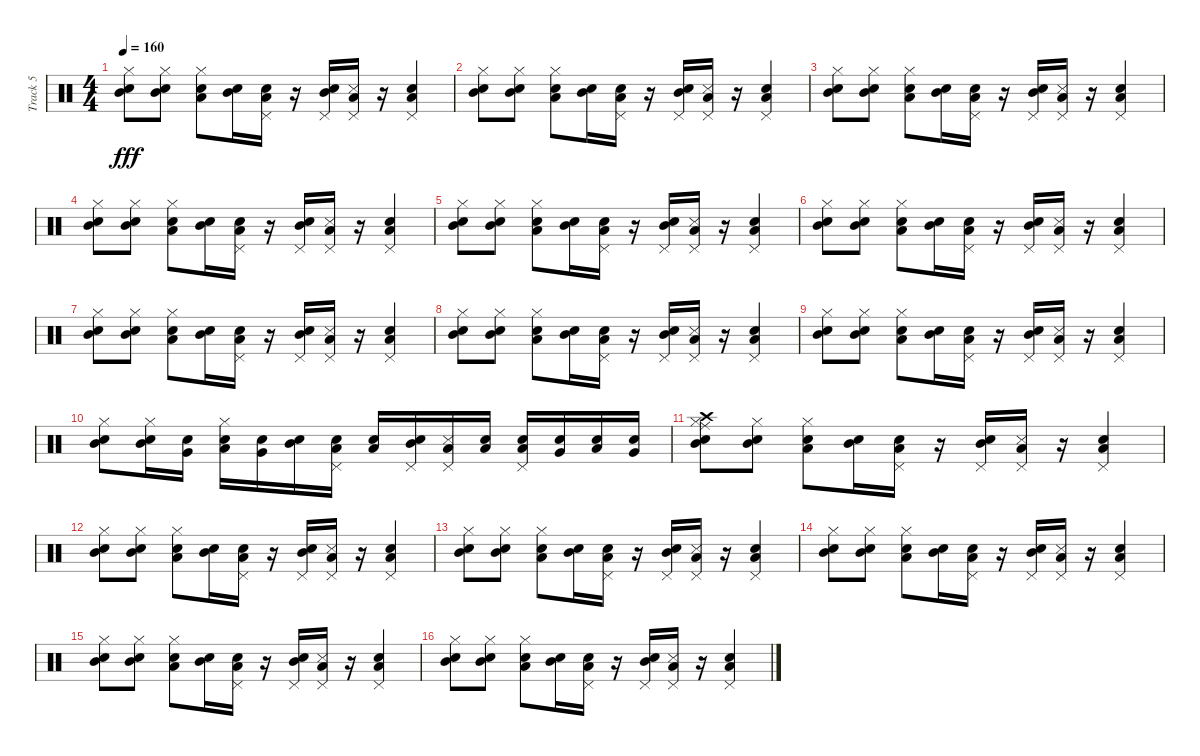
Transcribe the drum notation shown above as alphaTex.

\track ("Track 5" "Track 5") {instrument percussion}
\staff {score}
\articulation defaults
\ts (4 4)
\tempo 160
\clef neutral
\ks c
("Hi-Hat (closed)" "Electric Snare (hit)" "Mid Tom (hit)").8{dy fff} ("Hi-Hat (closed)" "Electric Snare (hit)" "Mid Tom (hit)").8 ("Hi-Hat (closed)" "Snare (hit) 2" "Low Tom (hit)").8 ("Electric Snare (hit)" "Mid Tom (hit)").16 ("Low Tom (hit)" "Electric Snare (hit)" "Pedal Hi-Hat (hit)").16 r.16 ("Electric Snare (hit)" "Mid Tom (hit)" "Pedal Hi-Hat (hit)").16 ("Pedal Hi-Hat (hit)" "Low Tom (hit)" "Snare (side stick) 3").16 r.16 ("Pedal Hi-Hat (hit)" "Low Tom (hit)" "Snare (hit) 2").4 |
("Hi-Hat (closed)" "Electric Snare (hit)" "Mid Tom (hit)").8 ("Hi-Hat (closed)" "Electric Snare (hit)" "Mid Tom (hit)").8 ("Hi-Hat (closed)" "Snare (hit) 2" "Low Tom (hit)").8 ("Electric Snare (hit)" "Mid Tom (hit)").16 ("Low Tom (hit)" "Electric Snare (hit)" "Pedal Hi-Hat (hit)").16 r.16 ("Electric Snare (hit)" "Mid Tom (hit)" "Pedal Hi-Hat (hit)").16 ("Pedal Hi-Hat (hit)" "Low Tom (hit)" "Snare (side stick) 3").16 r.16 ("Pedal Hi-Hat (hit)" "Low Tom (hit)" "Snare (hit) 2").4 |
("Hi-Hat (closed)" "Electric Snare (hit)" "Mid Tom (hit)").8 ("Hi-Hat (closed)" "Electric Snare (hit)" "Mid Tom (hit)").8 ("Hi-Hat (closed)" "Snare (hit) 2" "Low Tom (hit)").8 ("Electric Snare (hit)" "Mid Tom (hit)").16 ("Low Tom (hit)" "Electric Snare (hit)" "Pedal Hi-Hat (hit)").16 r.16 ("Electric Snare (hit)" "Mid Tom (hit)" "Pedal Hi-Hat (hit)").16 ("Pedal Hi-Hat (hit)" "Low Tom (hit)" "Snare (side stick) 3").16 r.16 ("Pedal Hi-Hat (hit)" "Low Tom (hit)" "Snare (hit) 2").4 |
("Hi-Hat (closed)" "Electric Snare (hit)" "Mid Tom (hit)").8 ("Hi-Hat (closed)" "Electric Snare (hit)" "Mid Tom (hit)").8 ("Hi-Hat (closed)" "Snare (hit) 2" "Low Tom (hit)").8 ("Electric Snare (hit)" "Mid Tom (hit)").16 ("Low Tom (hit)" "Electric Snare (hit)" "Pedal Hi-Hat (hit)").16 r.16 ("Electric Snare (hit)" "Mid Tom (hit)" "Pedal Hi-Hat (hit)").16 ("Pedal Hi-Hat (hit)" "Low Tom (hit)" "Snare (side stick) 3").16 r.16 ("Pedal Hi-Hat (hit)" "Low Tom (hit)" "Snare (hit) 2").4 |
("Hi-Hat (closed)" "Electric Snare (hit)" "Mid Tom (hit)").8 ("Hi-Hat (closed)" "Electric Snare (hit)" "Mid Tom (hit)").8 ("Hi-Hat (closed)" "Snare (hit) 2" "Low Tom (hit)").8 ("Electric Snare (hit)" "Mid Tom (hit)").16 ("Low Tom (hit)" "Electric Snare (hit)" "Pedal Hi-Hat (hit)").16 r.16 ("Electric Snare (hit)" "Mid Tom (hit)" "Pedal Hi-Hat (hit)").16 ("Pedal Hi-Hat (hit)" "Low Tom (hit)" "Snare (side stick) 3").16 r.16 ("Pedal Hi-Hat (hit)" "Low Tom (hit)" "Snare (hit) 2").4 |
("Hi-Hat (closed)" "Electric Snare (hit)" "Mid Tom (hit)").8 ("Hi-Hat (closed)" "Electric Snare (hit)" "Mid Tom (hit)").8 ("Hi-Hat (closed)" "Snare (hit) 2" "Low Tom (hit)").8 ("Electric Snare (hit)" "Mid Tom (hit)").16 ("Low Tom (hit)" "Electric Snare (hit)" "Pedal Hi-Hat (hit)").16 r.16 ("Electric Snare (hit)" "Mid Tom (hit)" "Pedal Hi-Hat (hit)").16 ("Pedal Hi-Hat (hit)" "Low Tom (hit)" "Snare (side stick) 3").16 r.16 ("Pedal Hi-Hat (hit)" "Low Tom (hit)" "Snare (hit) 2").4 |
("Hi-Hat (closed)" "Electric Snare (hit)" "Mid Tom (hit)").8 ("Hi-Hat (closed)" "Electric Snare (hit)" "Mid Tom (hit)").8 ("Hi-Hat (closed)" "Snare (hit) 2" "Low Tom (hit)").8 ("Electric Snare (hit)" "Mid Tom (hit)").16 ("Low Tom (hit)" "Electric Snare (hit)" "Pedal Hi-Hat (hit)").16 r.16 ("Electric Snare (hit)" "Mid Tom (hit)" "Pedal Hi-Hat (hit)").16 ("Pedal Hi-Hat (hit)" "Low Tom (hit)" "Snare (side stick) 3").16 r.16 ("Pedal Hi-Hat (hit)" "Low Tom (hit)" "Snare (hit) 2").4 |
("Hi-Hat (closed)" "Electric Snare (hit)" "Mid Tom (hit)").8 ("Hi-Hat (closed)" "Electric Snare (hit)" "Mid Tom (hit)").8 ("Hi-Hat (closed)" "Snare (hit) 2" "Low Tom (hit)").8 ("Electric Snare (hit)" "Mid Tom (hit)").16 ("Low Tom (hit)" "Electric Snare (hit)" "Pedal Hi-Hat (hit)").16 r.16 ("Electric Snare (hit)" "Mid Tom (hit)" "Pedal Hi-Hat (hit)").16 ("Pedal Hi-Hat (hit)" "Low Tom (hit)" "Snare (side stick) 3").16 r.16 ("Pedal Hi-Hat (hit)" "Low Tom (hit)" "Snare (hit) 2").4 |
("Hi-Hat (closed)" "Electric Snare (hit)" "Mid Tom (hit)").8 ("Hi-Hat (closed)" "Electric Snare (hit)" "Mid Tom (hit)").8 ("Hi-Hat (closed)" "Snare (hit) 2" "Low Tom (hit)").8 ("Electric Snare (hit)" "Mid Tom (hit)").16 ("Low Tom (hit)" "Electric Snare (hit)" "Pedal Hi-Hat (hit)").16 r.16 ("Electric Snare (hit)" "Mid Tom (hit)" "Pedal Hi-Hat (hit)").16 ("Pedal Hi-Hat (hit)" "Low Tom (hit)" "Snare (side stick) 3").16 r.16 ("Pedal Hi-Hat (hit)" "Low Tom (hit)" "Snare (hit) 2").4 |
("Hi-Hat (closed)" "Electric Snare (hit)" "Mid Tom (hit)").8 ("Hi-Hat (closed)" "Electric Snare (hit)" "Mid Tom (hit)").16 ("Very Low Tom (hit)" "Electric Snare (hit)").16 ("Hi-Hat (closed)" "Snare (hit) 2" "Low Tom (hit)").16 ("Electric Snare (hit)" "Very Low Tom (hit)").16 ("Electric Snare (hit)" "Mid Tom (hit)").16 ("Low Tom (hit)" "Electric Snare (hit)" "Pedal Hi-Hat (hit)").16 ("Low Tom (hit)" "Electric Snare (hit)").16 ("Electric Snare (hit)" "Mid Tom (hit)" "Pedal Hi-Hat (hit)").16 ("Pedal Hi-Hat (hit)" "Low Tom (hit)" "Snare (side stick) 3").16 ("Low Tom (hit)" "Electric Snare (hit)").16 ("Pedal Hi-Hat (hit)" "Low Tom (hit)" "Snare (hit) 2").16 ("Very Low Tom (hit)" "Snare (hit) 2").16 ("Low Tom (hit)" "Electric Snare (hit)").16 ("Very Low Tom (hit)" "Snare (hit) 2").16 |
("Hi-Hat (closed)" "Electric Snare (hit)" "Mid Tom (hit)" "Ride (middle)" "Crash high (hit)").8 ("Hi-Hat (closed)" "Electric Snare (hit)" "Mid Tom (hit)").8 ("Hi-Hat (closed)" "Snare (hit) 2" "Low Tom (hit)").8 ("Electric Snare (hit)" "Mid Tom (hit)").16 ("Low Tom (hit)" "Electric Snare (hit)" "Pedal Hi-Hat (hit)").16 r.16 ("Electric Snare (hit)" "Mid Tom (hit)" "Pedal Hi-Hat (hit)").16 ("Pedal Hi-Hat (hit)" "Low Tom (hit)" "Snare (side stick) 3").16 r.16 ("Pedal Hi-Hat (hit)" "Low Tom (hit)" "Snare (hit) 2").4 |
("Hi-Hat (closed)" "Electric Snare (hit)" "Mid Tom (hit)").8 ("Hi-Hat (closed)" "Electric Snare (hit)" "Mid Tom (hit)").8 ("Hi-Hat (closed)" "Snare (hit) 2" "Low Tom (hit)").8 ("Electric Snare (hit)" "Mid Tom (hit)").16 ("Low Tom (hit)" "Electric Snare (hit)" "Pedal Hi-Hat (hit)").16 r.16 ("Electric Snare (hit)" "Mid Tom (hit)" "Pedal Hi-Hat (hit)").16 ("Pedal Hi-Hat (hit)" "Low Tom (hit)" "Snare (side stick) 3").16 r.16 ("Pedal Hi-Hat (hit)" "Low Tom (hit)" "Snare (hit) 2").4 |
("Hi-Hat (closed)" "Electric Snare (hit)" "Mid Tom (hit)").8 ("Hi-Hat (closed)" "Electric Snare (hit)" "Mid Tom (hit)").8 ("Hi-Hat (closed)" "Snare (hit) 2" "Low Tom (hit)").8 ("Electric Snare (hit)" "Mid Tom (hit)").16 ("Low Tom (hit)" "Electric Snare (hit)" "Pedal Hi-Hat (hit)").16 r.16 ("Electric Snare (hit)" "Mid Tom (hit)" "Pedal Hi-Hat (hit)").16 ("Pedal Hi-Hat (hit)" "Low Tom (hit)" "Snare (side stick) 3").16 r.16 ("Pedal Hi-Hat (hit)" "Low Tom (hit)" "Snare (hit) 2").4 |
("Hi-Hat (closed)" "Electric Snare (hit)" "Mid Tom (hit)").8 ("Hi-Hat (closed)" "Electric Snare (hit)" "Mid Tom (hit)").8 ("Hi-Hat (closed)" "Snare (hit) 2" "Low Tom (hit)").8 ("Electric Snare (hit)" "Mid Tom (hit)").16 ("Low Tom (hit)" "Electric Snare (hit)" "Pedal Hi-Hat (hit)").16 r.16 ("Electric Snare (hit)" "Mid Tom (hit)" "Pedal Hi-Hat (hit)").16 ("Pedal Hi-Hat (hit)" "Low Tom (hit)" "Snare (side stick) 3").16 r.16 ("Pedal Hi-Hat (hit)" "Low Tom (hit)" "Snare (hit) 2").4 |
("Hi-Hat (closed)" "Electric Snare (hit)" "Mid Tom (hit)").8 ("Hi-Hat (closed)" "Electric Snare (hit)" "Mid Tom (hit)").8 ("Hi-Hat (closed)" "Snare (hit) 2" "Low Tom (hit)").8 ("Electric Snare (hit)" "Mid Tom (hit)").16 ("Low Tom (hit)" "Electric Snare (hit)" "Pedal Hi-Hat (hit)").16 r.16 ("Electric Snare (hit)" "Mid Tom (hit)" "Pedal Hi-Hat (hit)").16 ("Pedal Hi-Hat (hit)" "Low Tom (hit)" "Snare (side stick) 3").16 r.16 ("Pedal Hi-Hat (hit)" "Low Tom (hit)" "Snare (hit) 2").4 |
("Hi-Hat (closed)" "Electric Snare (hit)" "Mid Tom (hit)").8 ("Hi-Hat (closed)" "Electric Snare (hit)" "Mid Tom (hit)").8 ("Hi-Hat (closed)" "Snare (hit) 2" "Low Tom (hit)").8 ("Electric Snare (hit)" "Mid Tom (hit)").16 ("Low Tom (hit)" "Electric Snare (hit)" "Pedal Hi-Hat (hit)").16 r.16 ("Electric Snare (hit)" "Mid Tom (hit)" "Pedal Hi-Hat (hit)").16 ("Pedal Hi-Hat (hit)" "Low Tom (hit)" "Snare (side stick) 3").16 r.16 ("Pedal Hi-Hat (hit)" "Low Tom (hit)" "Snare (hit) 2").4
